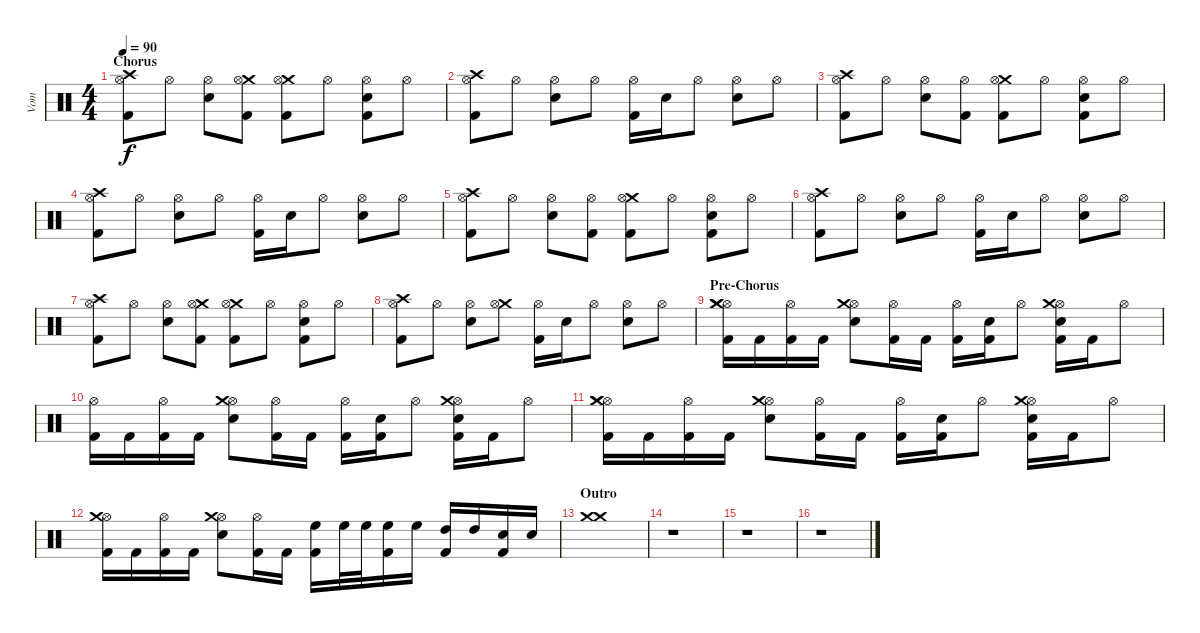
\track ("Vom" "Vom") {instrument percussion}
\staff {score}
\articulation defaults
\ts (4 4)
\section ("" "Chorus")
\tempo 90
\clef neutral
\ks c
("Crash high (hit)" "Hi-Hat (open)" "Kick (hit) 2").8{dy f} "Hi-Hat (open)".8 ("Hi-Hat (open)" "Snare (hit) 2").8 ("Crash medium (hit)" "Hi-Hat (open)" "Kick (hit) 2").8 ("Crash medium (hit)" "Hi-Hat (open)" "Kick (hit) 2").8 "Hi-Hat (open)".8 ("Hi-Hat (open)" "Snare (hit) 2" "Kick (hit) 2").8 "Hi-Hat (open)".8 |
("Crash high (hit)" "Hi-Hat (open)" "Kick (hit) 2").8 "Hi-Hat (open)".8 ("Hi-Hat (open)" "Snare (hit) 2").8 "Hi-Hat (open)".8 ("Hi-Hat (open)" "Kick (hit) 2").16 "Snare (hit) 2".16 "Hi-Hat (open)".8 ("Hi-Hat (open)" "Snare (hit) 2").8 "Hi-Hat (open)".8 |
("Crash high (hit)" "Hi-Hat (open)" "Kick (hit) 2").8 "Hi-Hat (open)".8 ("Hi-Hat (open)" "Snare (hit) 2").8 ("Hi-Hat (open)" "Kick (hit) 2").8 ("Crash medium (hit)" "Hi-Hat (open)" "Kick (hit) 2").8 "Hi-Hat (open)".8 ("Hi-Hat (open)" "Snare (hit) 2" "Kick (hit) 2").8 "Hi-Hat (open)".8 |
("Crash high (hit)" "Hi-Hat (open)" "Kick (hit) 2").8 "Hi-Hat (open)".8 ("Hi-Hat (open)" "Snare (hit) 2").8 "Hi-Hat (open)".8 ("Hi-Hat (open)" "Kick (hit) 2").16 "Snare (hit) 2".16 "Hi-Hat (open)".8 ("Hi-Hat (open)" "Snare (hit) 2").8 "Hi-Hat (open)".8 |
("Crash high (hit)" "Hi-Hat (open)" "Kick (hit) 2").8 "Hi-Hat (open)".8 ("Hi-Hat (open)" "Snare (hit) 2").8 ("Hi-Hat (open)" "Kick (hit) 2").8 ("Crash medium (hit)" "Hi-Hat (open)" "Kick (hit) 2").8 "Hi-Hat (open)".8 ("Hi-Hat (open)" "Snare (hit) 2" "Kick (hit) 2").8 "Hi-Hat (open)".8 |
("Crash high (hit)" "Hi-Hat (open)" "Kick (hit) 2").8 "Hi-Hat (open)".8 ("Hi-Hat (open)" "Snare (hit) 2").8 "Hi-Hat (open)".8 ("Hi-Hat (open)" "Kick (hit) 2").16 "Snare (hit) 2".16 "Hi-Hat (open)".8 ("Hi-Hat (open)" "Snare (hit) 2").8 "Hi-Hat (open)".8 |
("Crash high (hit)" "Hi-Hat (open)" "Kick (hit) 2").8 "Hi-Hat (open)".8 ("Hi-Hat (open)" "Snare (hit) 2").8 ("Crash medium (hit)" "Hi-Hat (open)" "Kick (hit) 2").8 ("Crash medium (hit)" "Hi-Hat (open)" "Kick (hit) 2").8 "Hi-Hat (open)".8 ("Hi-Hat (open)" "Snare (hit) 2" "Kick (hit) 2").8 "Hi-Hat (open)".8 |
("Crash high (hit)" "Hi-Hat (open)" "Kick (hit) 2").8 "Hi-Hat (open)".8 ("Hi-Hat (open)" "Snare (hit) 2").8 ("Crash medium (hit)" "Hi-Hat (open)").8 ("Hi-Hat (open)" "Kick (hit) 2").16 "Snare (hit) 2".16 "Hi-Hat (open)".8 ("Hi-Hat (open)" "Snare (hit) 2").8 "Hi-Hat (open)".8 |
\section ("" "Pre-Chorus")
("Hi-Hat (open)" "Crash medium (hit)" "Crash medium (hit)" "Kick (hit) 2").16 "Kick (hit) 2".16 ("Hi-Hat (open)" "Kick (hit) 2").16 "Kick (hit) 2".16 ("Hi-Hat (open)" "Crash medium (hit)" "Snare (hit) 2").8 ("Hi-Hat (open)" "Kick (hit) 2").16 "Kick (hit) 2".16 ("Hi-Hat (open)" "Kick (hit) 2").16 ("Snare (hit) 2" "Kick (hit) 2").16 "Hi-Hat (open)".8 ("Hi-Hat (open)" "Crash medium (hit)" "Snare (hit) 2" "Kick (hit) 2").16 "Kick (hit) 2".16 "Hi-Hat (open)".8 |
("Hi-Hat (open)" "Kick (hit) 2").16 "Kick (hit) 2".16 ("Hi-Hat (open)" "Kick (hit) 2").16 "Kick (hit) 2".16 ("Hi-Hat (open)" "Crash medium (hit)" "Snare (hit) 2").8 ("Hi-Hat (open)" "Kick (hit) 2").16 "Kick (hit) 2".16 ("Hi-Hat (open)" "Kick (hit) 2").16 ("Snare (hit) 2" "Kick (hit) 2").16 "Hi-Hat (open)".8 ("Hi-Hat (open)" "Crash medium (hit)" "Snare (hit) 2" "Kick (hit) 2").16 "Kick (hit) 2".16 "Hi-Hat (open)".8 |
("Hi-Hat (open)" "Crash medium (hit)" "Crash medium (hit)" "Kick (hit) 2").16 "Kick (hit) 2".16 ("Hi-Hat (open)" "Kick (hit) 2").16 "Kick (hit) 2".16 ("Hi-Hat (open)" "Crash medium (hit)" "Snare (hit) 2").8 ("Hi-Hat (open)" "Kick (hit) 2").16 "Kick (hit) 2".16 ("Hi-Hat (open)" "Kick (hit) 2").16 ("Snare (hit) 2" "Kick (hit) 2").16 "Hi-Hat (open)".8 ("Hi-Hat (open)" "Crash medium (hit)" "Snare (hit) 2" "Kick (hit) 2").16 "Kick (hit) 2".16 "Hi-Hat (open)".8 |
("Hi-Hat (open)" "Crash medium (hit)" "Kick (hit) 2").16 "Kick (hit) 2".16 ("Hi-Hat (open)" "Kick (hit) 2").16 "Kick (hit) 2".16 ("Hi-Hat (open)" "Crash medium (hit)" "Snare (hit) 2").8 ("Hi-Hat (open)" "Kick (hit) 2").16 "Kick (hit) 2".16 ("High Floor Tom (hit)" "Kick (hit) 2").16 "High Floor Tom (hit)".32 "High Floor Tom (hit)".32 ("High Floor Tom (hit)" "Kick (hit) 2").16 "High Floor Tom (hit)".16 ("High Tom (hit)" "Kick (hit) 2").16 "High Tom (hit)".16 ("Electric Snare (hit)" "Kick (hit) 2").16 "Electric Snare (hit)".16 |
\section ("" "Outro")
("Crash medium (hit)" "Crash medium (hit)").1 |
r.1 |
r.1 |
r.1
